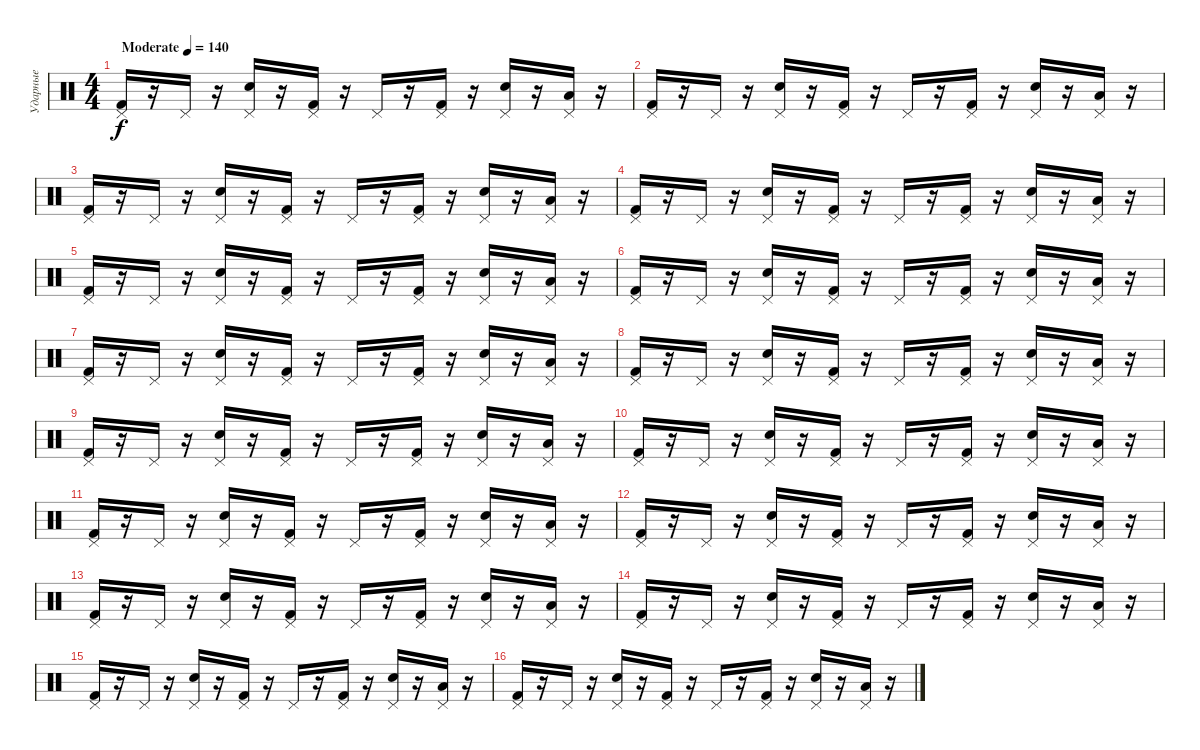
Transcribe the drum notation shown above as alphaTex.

\track ("Ударные" "Ударные") {instrument percussion}
\staff {score}
\articulation defaults
\ts (4 4)
\tempo (140 "Moderate")
\clef neutral
\ks c
("Kick (hit) 2" "Pedal Hi-Hat (hit)").16{dy f} r.16 "Pedal Hi-Hat (hit)".16 r.16 ("Snare (hit) 2" "Pedal Hi-Hat (hit)").16 r.16 ("Kick (hit) 2" "Pedal Hi-Hat (hit)").16 r.16 "Pedal Hi-Hat (hit)".16 r.16 ("Kick (hit) 2" "Pedal Hi-Hat (hit)").16 r.16 ("Snare (hit) 2" "Pedal Hi-Hat (hit)").16 r.16 ("Low Tom (hit)" "Pedal Hi-Hat (hit)").16 r.16 |
("Kick (hit) 2" "Pedal Hi-Hat (hit)").16 r.16 "Pedal Hi-Hat (hit)".16 r.16 ("Snare (hit) 2" "Pedal Hi-Hat (hit)").16 r.16 ("Kick (hit) 2" "Pedal Hi-Hat (hit)").16 r.16 "Pedal Hi-Hat (hit)".16 r.16 ("Kick (hit) 2" "Pedal Hi-Hat (hit)").16 r.16 ("Snare (hit) 2" "Pedal Hi-Hat (hit)").16 r.16 ("Low Tom (hit)" "Pedal Hi-Hat (hit)").16 r.16 |
("Kick (hit) 2" "Pedal Hi-Hat (hit)").16 r.16 "Pedal Hi-Hat (hit)".16 r.16 ("Snare (hit) 2" "Pedal Hi-Hat (hit)").16 r.16 ("Kick (hit) 2" "Pedal Hi-Hat (hit)").16 r.16 "Pedal Hi-Hat (hit)".16 r.16 ("Kick (hit) 2" "Pedal Hi-Hat (hit)").16 r.16 ("Snare (hit) 2" "Pedal Hi-Hat (hit)").16 r.16 ("Low Tom (hit)" "Pedal Hi-Hat (hit)").16 r.16 |
("Kick (hit) 2" "Pedal Hi-Hat (hit)").16 r.16 "Pedal Hi-Hat (hit)".16 r.16 ("Snare (hit) 2" "Pedal Hi-Hat (hit)").16 r.16 ("Kick (hit) 2" "Pedal Hi-Hat (hit)").16 r.16 "Pedal Hi-Hat (hit)".16 r.16 ("Kick (hit) 2" "Pedal Hi-Hat (hit)").16 r.16 ("Snare (hit) 2" "Pedal Hi-Hat (hit)").16 r.16 ("Low Tom (hit)" "Pedal Hi-Hat (hit)").16 r.16 |
("Kick (hit) 2" "Pedal Hi-Hat (hit)").16 r.16 "Pedal Hi-Hat (hit)".16 r.16 ("Snare (hit) 2" "Pedal Hi-Hat (hit)").16 r.16 ("Kick (hit) 2" "Pedal Hi-Hat (hit)").16 r.16 "Pedal Hi-Hat (hit)".16 r.16 ("Kick (hit) 2" "Pedal Hi-Hat (hit)").16 r.16 ("Snare (hit) 2" "Pedal Hi-Hat (hit)").16 r.16 ("Low Tom (hit)" "Pedal Hi-Hat (hit)").16 r.16 |
("Kick (hit) 2" "Pedal Hi-Hat (hit)").16 r.16 "Pedal Hi-Hat (hit)".16 r.16 ("Snare (hit) 2" "Pedal Hi-Hat (hit)").16 r.16 ("Kick (hit) 2" "Pedal Hi-Hat (hit)").16 r.16 "Pedal Hi-Hat (hit)".16 r.16 ("Kick (hit) 2" "Pedal Hi-Hat (hit)").16 r.16 ("Snare (hit) 2" "Pedal Hi-Hat (hit)").16 r.16 ("Low Tom (hit)" "Pedal Hi-Hat (hit)").16 r.16 |
("Kick (hit) 2" "Pedal Hi-Hat (hit)").16 r.16 "Pedal Hi-Hat (hit)".16 r.16 ("Snare (hit) 2" "Pedal Hi-Hat (hit)").16 r.16 ("Kick (hit) 2" "Pedal Hi-Hat (hit)").16 r.16 "Pedal Hi-Hat (hit)".16 r.16 ("Kick (hit) 2" "Pedal Hi-Hat (hit)").16 r.16 ("Snare (hit) 2" "Pedal Hi-Hat (hit)").16 r.16 ("Low Tom (hit)" "Pedal Hi-Hat (hit)").16 r.16 |
("Kick (hit) 2" "Pedal Hi-Hat (hit)").16 r.16 "Pedal Hi-Hat (hit)".16 r.16 ("Snare (hit) 2" "Pedal Hi-Hat (hit)").16 r.16 ("Kick (hit) 2" "Pedal Hi-Hat (hit)").16 r.16 "Pedal Hi-Hat (hit)".16 r.16 ("Kick (hit) 2" "Pedal Hi-Hat (hit)").16 r.16 ("Snare (hit) 2" "Pedal Hi-Hat (hit)").16 r.16 ("Low Tom (hit)" "Pedal Hi-Hat (hit)").16 r.16 |
("Kick (hit) 2" "Pedal Hi-Hat (hit)").16 r.16 "Pedal Hi-Hat (hit)".16 r.16 ("Snare (hit) 2" "Pedal Hi-Hat (hit)").16 r.16 ("Kick (hit) 2" "Pedal Hi-Hat (hit)").16 r.16 "Pedal Hi-Hat (hit)".16 r.16 ("Kick (hit) 2" "Pedal Hi-Hat (hit)").16 r.16 ("Snare (hit) 2" "Pedal Hi-Hat (hit)").16 r.16 ("Low Tom (hit)" "Pedal Hi-Hat (hit)").16 r.16 |
("Kick (hit) 2" "Pedal Hi-Hat (hit)").16 r.16 "Pedal Hi-Hat (hit)".16 r.16 ("Snare (hit) 2" "Pedal Hi-Hat (hit)").16 r.16 ("Kick (hit) 2" "Pedal Hi-Hat (hit)").16 r.16 "Pedal Hi-Hat (hit)".16 r.16 ("Kick (hit) 2" "Pedal Hi-Hat (hit)").16 r.16 ("Snare (hit) 2" "Pedal Hi-Hat (hit)").16 r.16 ("Low Tom (hit)" "Pedal Hi-Hat (hit)").16 r.16 |
("Kick (hit) 2" "Pedal Hi-Hat (hit)").16 r.16 "Pedal Hi-Hat (hit)".16 r.16 ("Snare (hit) 2" "Pedal Hi-Hat (hit)").16 r.16 ("Kick (hit) 2" "Pedal Hi-Hat (hit)").16 r.16 "Pedal Hi-Hat (hit)".16 r.16 ("Kick (hit) 2" "Pedal Hi-Hat (hit)").16 r.16 ("Snare (hit) 2" "Pedal Hi-Hat (hit)").16 r.16 ("Low Tom (hit)" "Pedal Hi-Hat (hit)").16 r.16 |
("Kick (hit) 2" "Pedal Hi-Hat (hit)").16 r.16 "Pedal Hi-Hat (hit)".16 r.16 ("Snare (hit) 2" "Pedal Hi-Hat (hit)").16 r.16 ("Kick (hit) 2" "Pedal Hi-Hat (hit)").16 r.16 "Pedal Hi-Hat (hit)".16 r.16 ("Kick (hit) 2" "Pedal Hi-Hat (hit)").16 r.16 ("Snare (hit) 2" "Pedal Hi-Hat (hit)").16 r.16 ("Low Tom (hit)" "Pedal Hi-Hat (hit)").16 r.16 |
("Kick (hit) 2" "Pedal Hi-Hat (hit)").16 r.16 "Pedal Hi-Hat (hit)".16 r.16 ("Snare (hit) 2" "Pedal Hi-Hat (hit)").16 r.16 ("Kick (hit) 2" "Pedal Hi-Hat (hit)").16 r.16 "Pedal Hi-Hat (hit)".16 r.16 ("Kick (hit) 2" "Pedal Hi-Hat (hit)").16 r.16 ("Snare (hit) 2" "Pedal Hi-Hat (hit)").16 r.16 ("Low Tom (hit)" "Pedal Hi-Hat (hit)").16 r.16 |
("Kick (hit) 2" "Pedal Hi-Hat (hit)").16 r.16 "Pedal Hi-Hat (hit)".16 r.16 ("Snare (hit) 2" "Pedal Hi-Hat (hit)").16 r.16 ("Kick (hit) 2" "Pedal Hi-Hat (hit)").16 r.16 "Pedal Hi-Hat (hit)".16 r.16 ("Kick (hit) 2" "Pedal Hi-Hat (hit)").16 r.16 ("Snare (hit) 2" "Pedal Hi-Hat (hit)").16 r.16 ("Low Tom (hit)" "Pedal Hi-Hat (hit)").16 r.16 |
("Kick (hit) 2" "Pedal Hi-Hat (hit)").16 r.16 "Pedal Hi-Hat (hit)".16 r.16 ("Snare (hit) 2" "Pedal Hi-Hat (hit)").16 r.16 ("Kick (hit) 2" "Pedal Hi-Hat (hit)").16 r.16 "Pedal Hi-Hat (hit)".16 r.16 ("Kick (hit) 2" "Pedal Hi-Hat (hit)").16 r.16 ("Snare (hit) 2" "Pedal Hi-Hat (hit)").16 r.16 ("Low Tom (hit)" "Pedal Hi-Hat (hit)").16 r.16 |
("Kick (hit) 2" "Pedal Hi-Hat (hit)").16 r.16 "Pedal Hi-Hat (hit)".16 r.16 ("Snare (hit) 2" "Pedal Hi-Hat (hit)").16 r.16 ("Kick (hit) 2" "Pedal Hi-Hat (hit)").16 r.16 "Pedal Hi-Hat (hit)".16 r.16 ("Kick (hit) 2" "Pedal Hi-Hat (hit)").16 r.16 ("Snare (hit) 2" "Pedal Hi-Hat (hit)").16 r.16 ("Low Tom (hit)" "Pedal Hi-Hat (hit)").16 r.16
